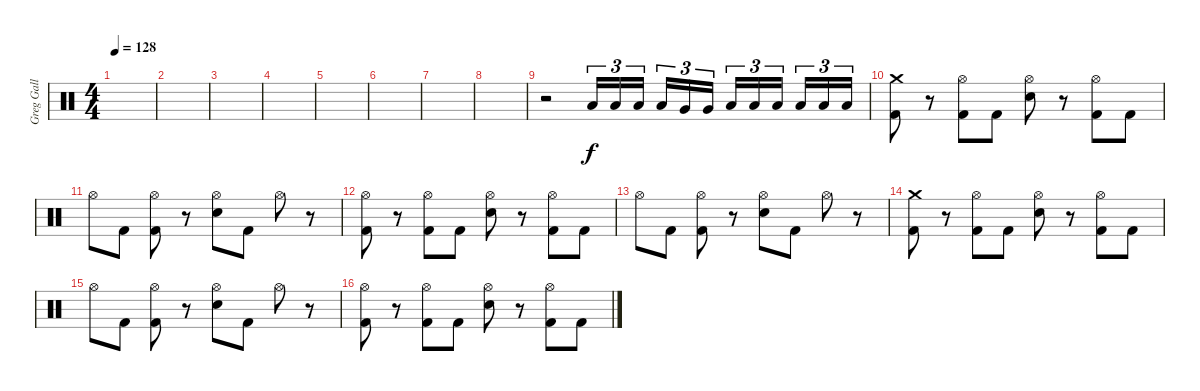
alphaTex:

\track ("Greg Gall" "Greg Gall") {instrument percussion}
\staff {score}
\articulation defaults
\ts (4 4)
\tempo 128
\clef neutral
\ks c
|
|
|
|
|
|
|
|
r.2 "Low Tom (hit)".16{tu (3 2)} "Low Tom (hit)".16{tu (3 2)} "Low Tom (hit)".16{tu (3 2)} "Low Tom (hit)".16{tu (3 2)} "Very Low Tom (hit)".16{tu (3 2)} "Very Low Tom (hit)".16{tu (3 2)} "Low Tom (hit)".16{tu (3 2)} "Low Tom (hit)".16{tu (3 2)} "Low Tom (hit)".16{tu (3 2)} "Low Floor Tom (hit)".16{tu (3 2)} "Low Floor Tom (hit)".16{tu (3 2)} "Low Floor Tom (hit)".16{tu (3 2)} |
("Crash medium (hit)" "Kick (hit) 2").8 r.8 ("Hi-Hat (open)" "Kick (hit) 2").8 "Kick (hit) 2".8 ("Hi-Hat (open)" "Electric Snare (hit)").8 r.8 ("Hi-Hat (open)" "Kick (hit) 2").8 "Kick (hit) 2".8 |
"Hi-Hat (open)".8 "Kick (hit) 2".8 ("Hi-Hat (open)" "Kick (hit) 2").8 r.8 ("Hi-Hat (open)" "Electric Snare (hit)").8 "Kick (hit) 2".8 "Hi-Hat (open)".8 r.8 |
("Hi-Hat (open)" "Kick (hit) 2").8 r.8 ("Hi-Hat (open)" "Kick (hit) 2").8 "Kick (hit) 2".8 ("Hi-Hat (open)" "Electric Snare (hit)").8 r.8 ("Hi-Hat (open)" "Kick (hit) 2").8 "Kick (hit) 2".8 |
"Hi-Hat (open)".8 "Kick (hit) 2".8 ("Hi-Hat (open)" "Kick (hit) 2").8 r.8 ("Hi-Hat (open)" "Electric Snare (hit)").8 "Kick (hit) 2".8 "Hi-Hat (open)".8 r.8 |
("Crash medium (hit)" "Kick (hit) 2").8 r.8 ("Hi-Hat (open)" "Kick (hit) 2").8 "Kick (hit) 2".8 ("Hi-Hat (open)" "Electric Snare (hit)").8 r.8 ("Hi-Hat (open)" "Kick (hit) 2").8 "Kick (hit) 2".8 |
"Hi-Hat (open)".8 "Kick (hit) 2".8 ("Hi-Hat (open)" "Kick (hit) 2").8 r.8 ("Hi-Hat (open)" "Electric Snare (hit)").8 "Kick (hit) 2".8 "Hi-Hat (open)".8 r.8 |
("Hi-Hat (open)" "Kick (hit) 2").8 r.8 ("Hi-Hat (open)" "Kick (hit) 2").8 "Kick (hit) 2".8 ("Hi-Hat (open)" "Electric Snare (hit)").8 r.8 ("Hi-Hat (open)" "Kick (hit) 2").8 "Kick (hit) 2".8
